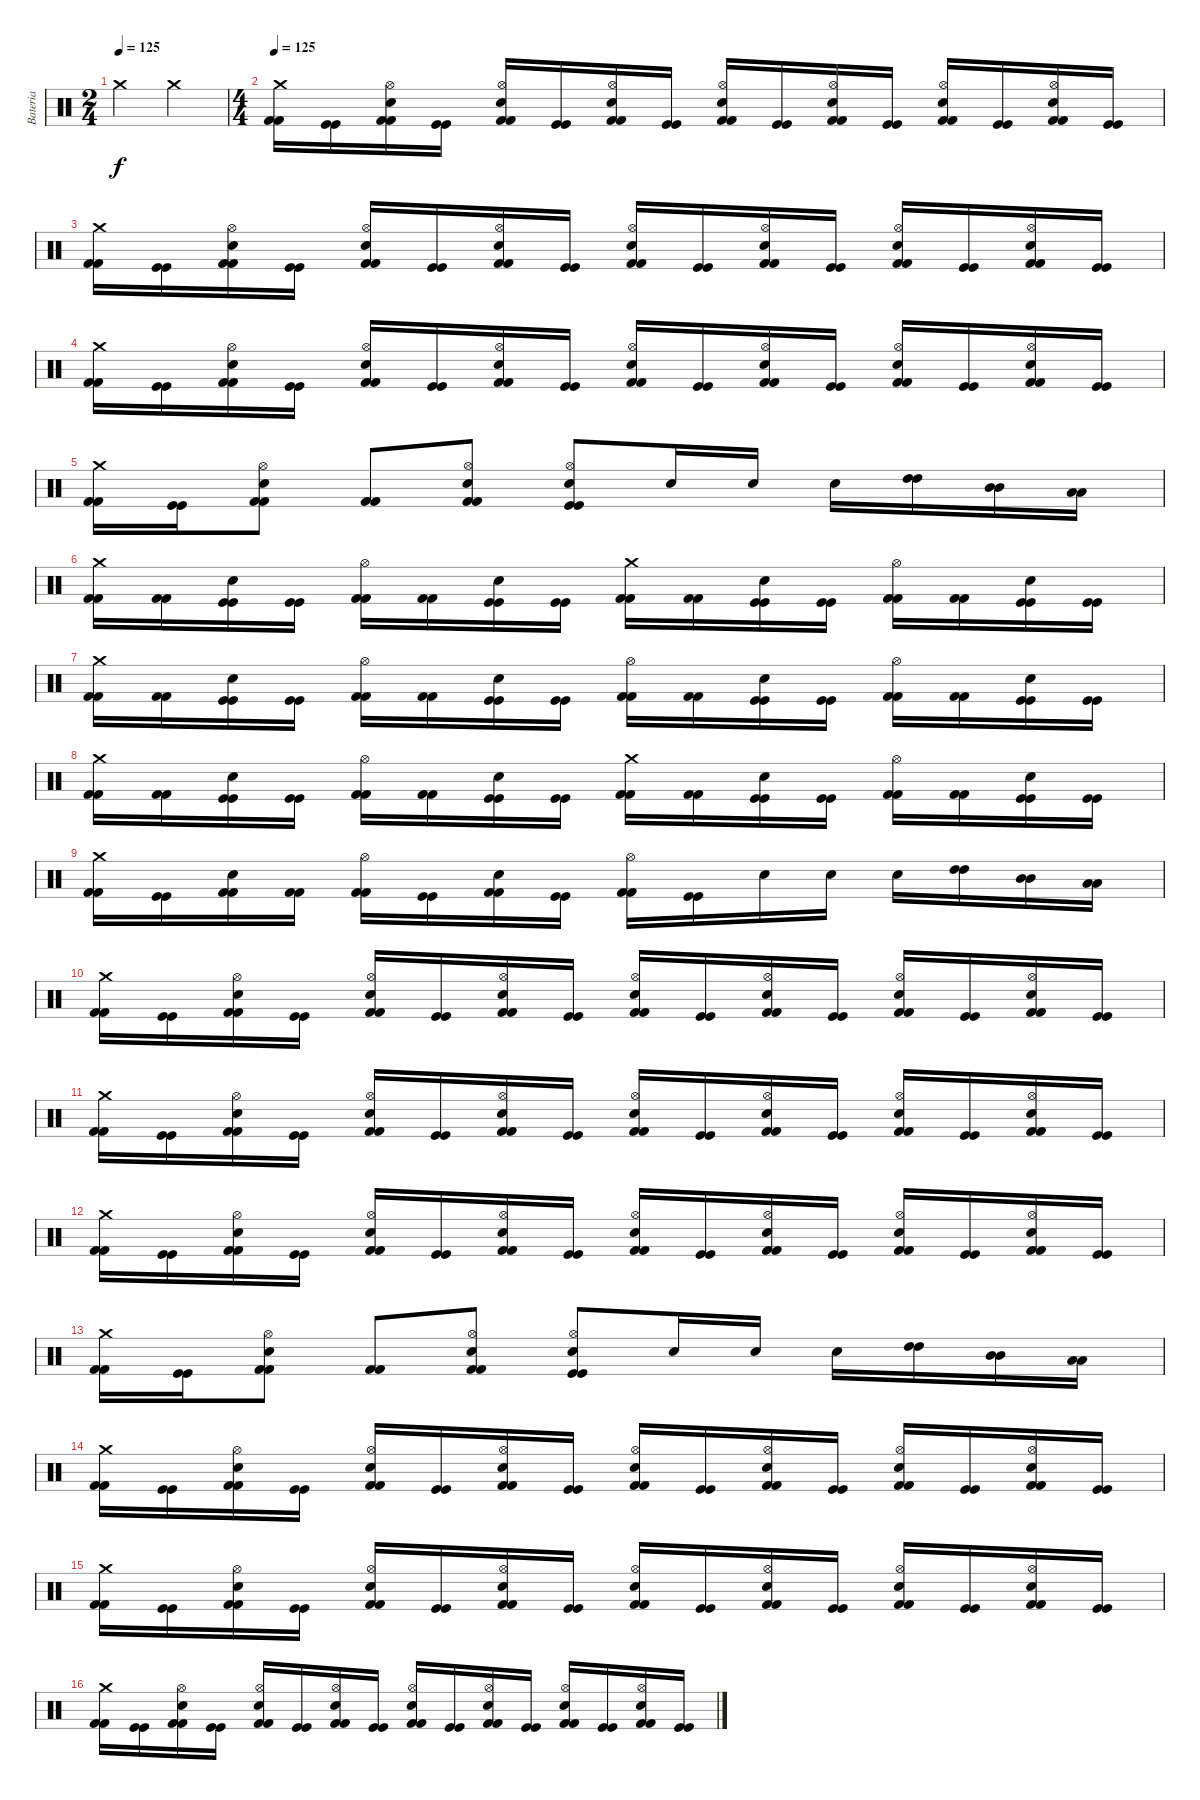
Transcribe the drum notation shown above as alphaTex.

\track ("Bateria" "Bateria") {instrument percussion}
\staff {score}
\articulation defaults
\ts (2 4)
\tempo 125
\clef neutral
\ks c "Crash medium (hit)".4{dy f} "Crash medium (hit)".4
|
\ts (4 4)
\tempo 125
("Crash medium (hit)" "Kick (hit) 2" "Kick (hit) 2").16 ("Kick (hit)" "Kick (hit)").16 ("Hi-Hat (open)" "Electric Snare (hit)" "Kick (hit) 2" "Kick (hit) 2").16 ("Kick (hit)" "Kick (hit)").16 ("Hi-Hat (open)" "Electric Snare (hit)" "Kick (hit) 2" "Kick (hit) 2").16 ("Kick (hit)" "Kick (hit)").16 ("Hi-Hat (open)" "Electric Snare (hit)" "Kick (hit) 2" "Kick (hit) 2").16 ("Kick (hit)" "Kick (hit)").16 ("Hi-Hat (open)" "Electric Snare (hit)" "Kick (hit) 2" "Kick (hit) 2").16 ("Kick (hit)" "Kick (hit)").16 ("Hi-Hat (open)" "Electric Snare (hit)" "Kick (hit) 2" "Kick (hit) 2").16 ("Kick (hit)" "Kick (hit)").16 ("Hi-Hat (open)" "Electric Snare (hit)" "Kick (hit) 2" "Kick (hit) 2").16 ("Kick (hit)" "Kick (hit)").16 ("Hi-Hat (open)" "Electric Snare (hit)" "Kick (hit) 2" "Kick (hit) 2").16 ("Kick (hit)" "Kick (hit)").16 |
("Crash medium (hit)" "Kick (hit) 2" "Kick (hit) 2").16 ("Kick (hit)" "Kick (hit)").16 ("Hi-Hat (open)" "Electric Snare (hit)" "Kick (hit) 2" "Kick (hit) 2").16 ("Kick (hit)" "Kick (hit)").16 ("Hi-Hat (open)" "Electric Snare (hit)" "Kick (hit) 2" "Kick (hit) 2").16 ("Kick (hit)" "Kick (hit)").16 ("Hi-Hat (open)" "Electric Snare (hit)" "Kick (hit) 2" "Kick (hit) 2").16 ("Kick (hit)" "Kick (hit)").16 ("Hi-Hat (open)" "Electric Snare (hit)" "Kick (hit) 2" "Kick (hit) 2").16 ("Kick (hit)" "Kick (hit)").16 ("Hi-Hat (open)" "Electric Snare (hit)" "Kick (hit) 2" "Kick (hit) 2").16 ("Kick (hit)" "Kick (hit)").16 ("Hi-Hat (open)" "Electric Snare (hit)" "Kick (hit) 2" "Kick (hit) 2").16 ("Kick (hit)" "Kick (hit)").16 ("Hi-Hat (open)" "Electric Snare (hit)" "Kick (hit) 2" "Kick (hit) 2").16 ("Kick (hit)" "Kick (hit)").16 |
("Crash medium (hit)" "Kick (hit) 2" "Kick (hit) 2").16 ("Kick (hit)" "Kick (hit)").16 ("Hi-Hat (open)" "Electric Snare (hit)" "Kick (hit) 2" "Kick (hit) 2").16 ("Kick (hit)" "Kick (hit)").16 ("Hi-Hat (open)" "Electric Snare (hit)" "Kick (hit) 2" "Kick (hit) 2").16 ("Kick (hit)" "Kick (hit)").16 ("Hi-Hat (open)" "Electric Snare (hit)" "Kick (hit) 2" "Kick (hit) 2").16 ("Kick (hit)" "Kick (hit)").16 ("Hi-Hat (open)" "Electric Snare (hit)" "Kick (hit) 2" "Kick (hit) 2").16 ("Kick (hit)" "Kick (hit)").16 ("Hi-Hat (open)" "Electric Snare (hit)" "Kick (hit) 2" "Kick (hit) 2").16 ("Kick (hit)" "Kick (hit)").16 ("Hi-Hat (open)" "Electric Snare (hit)" "Kick (hit) 2" "Kick (hit) 2").16 ("Kick (hit)" "Kick (hit)").16 ("Hi-Hat (open)" "Electric Snare (hit)" "Kick (hit) 2" "Kick (hit) 2").16 ("Kick (hit)" "Kick (hit)").16 |
("Crash medium (hit)" "Kick (hit) 2" "Kick (hit) 2").16 ("Kick (hit)" "Kick (hit)").16 ("Hi-Hat (open)" "Electric Snare (hit)" "Kick (hit) 2" "Kick (hit) 2").8 ("Kick (hit) 2" "Kick (hit) 2").8 ("Hi-Hat (open)" "Electric Snare (hit)" "Kick (hit) 2" "Kick (hit) 2").8 ("Hi-Hat (open)" "Electric Snare (hit)" "Kick (hit)" "Kick (hit)").8 "Electric Snare (hit)".16 "Electric Snare (hit)".16 "Electric Snare (hit)".16 ("High Tom (hit)" "High Tom (hit)").16 ("Mid Tom (hit)" "Mid Tom (hit)").16 ("Low Tom (hit)" "Low Tom (hit)").16 |
("Crash medium (hit)" "Kick (hit) 2" "Kick (hit) 2").16 ("Kick (hit) 2" "Kick (hit) 2").16 ("Electric Snare (hit)" "Kick (hit)" "Kick (hit)").16 ("Kick (hit)" "Kick (hit)").16 ("Hi-Hat (open)" "Kick (hit) 2" "Kick (hit) 2").16 ("Kick (hit) 2" "Kick (hit) 2").16 ("Electric Snare (hit)" "Kick (hit)" "Kick (hit)").16 ("Kick (hit)" "Kick (hit)").16 ("Crash medium (hit)" "Kick (hit) 2" "Kick (hit) 2").16 ("Kick (hit) 2" "Kick (hit) 2").16 ("Electric Snare (hit)" "Kick (hit)" "Kick (hit)").16 ("Kick (hit)" "Kick (hit)").16 ("Hi-Hat (open)" "Kick (hit) 2" "Kick (hit) 2").16 ("Kick (hit) 2" "Kick (hit) 2").16 ("Electric Snare (hit)" "Kick (hit)" "Kick (hit)").16 ("Kick (hit)" "Kick (hit)").16 |
("Crash medium (hit)" "Kick (hit) 2" "Kick (hit) 2").16 ("Kick (hit) 2" "Kick (hit) 2").16 ("Electric Snare (hit)" "Kick (hit)" "Kick (hit)").16 ("Kick (hit)" "Kick (hit)").16 ("Hi-Hat (open)" "Kick (hit) 2" "Kick (hit) 2").16 ("Kick (hit) 2" "Kick (hit) 2").16 ("Electric Snare (hit)" "Kick (hit)" "Kick (hit)").16 ("Kick (hit)" "Kick (hit)").16 ("Hi-Hat (open)" "Kick (hit) 2" "Kick (hit) 2").16 ("Kick (hit) 2" "Kick (hit) 2").16 ("Electric Snare (hit)" "Kick (hit)" "Kick (hit)").16 ("Kick (hit)" "Kick (hit)").16 ("Hi-Hat (open)" "Kick (hit) 2" "Kick (hit) 2").16 ("Kick (hit) 2" "Kick (hit) 2").16 ("Electric Snare (hit)" "Kick (hit)" "Kick (hit)").16 ("Kick (hit)" "Kick (hit)").16 |
("Crash medium (hit)" "Kick (hit) 2" "Kick (hit) 2").16 ("Kick (hit) 2" "Kick (hit) 2").16 ("Electric Snare (hit)" "Kick (hit)" "Kick (hit)").16 ("Kick (hit)" "Kick (hit)").16 ("Hi-Hat (open)" "Kick (hit) 2" "Kick (hit) 2").16 ("Kick (hit) 2" "Kick (hit) 2").16 ("Electric Snare (hit)" "Kick (hit)" "Kick (hit)").16 ("Kick (hit)" "Kick (hit)").16 ("Crash medium (hit)" "Kick (hit) 2" "Kick (hit) 2").16 ("Kick (hit) 2" "Kick (hit) 2").16 ("Electric Snare (hit)" "Kick (hit)" "Kick (hit)").16 ("Kick (hit)" "Kick (hit)").16 ("Hi-Hat (open)" "Kick (hit) 2" "Kick (hit) 2").16 ("Kick (hit) 2" "Kick (hit) 2").16 ("Electric Snare (hit)" "Kick (hit)" "Kick (hit)").16 ("Kick (hit)" "Kick (hit)").16 |
("Crash medium (hit)" "Kick (hit) 2" "Kick (hit) 2").16 ("Kick (hit)" "Kick (hit)").16 ("Electric Snare (hit)" "Kick (hit) 2" "Kick (hit) 2").16 ("Kick (hit) 2" "Kick (hit) 2").16 ("Hi-Hat (open)" "Kick (hit) 2" "Kick (hit) 2").16 ("Kick (hit)" "Kick (hit)").16 ("Electric Snare (hit)" "Kick (hit) 2" "Kick (hit) 2").16 ("Kick (hit)" "Kick (hit)").16 ("Hi-Hat (open)" "Kick (hit) 2" "Kick (hit) 2").16 ("Kick (hit)" "Kick (hit)").16 "Electric Snare (hit)".16 "Electric Snare (hit)".16 "Electric Snare (hit)".16 ("High Tom (hit)" "High Tom (hit)").16 ("Mid Tom (hit)" "Mid Tom (hit)").16 ("Low Tom (hit)" "Low Tom (hit)").16 |
("Crash medium (hit)" "Kick (hit) 2" "Kick (hit) 2").16 ("Kick (hit)" "Kick (hit)").16 ("Hi-Hat (open)" "Electric Snare (hit)" "Kick (hit) 2" "Kick (hit) 2").16 ("Kick (hit)" "Kick (hit)").16 ("Hi-Hat (open)" "Electric Snare (hit)" "Kick (hit) 2" "Kick (hit) 2").16 ("Kick (hit)" "Kick (hit)").16 ("Hi-Hat (open)" "Electric Snare (hit)" "Kick (hit) 2" "Kick (hit) 2").16 ("Kick (hit)" "Kick (hit)").16 ("Hi-Hat (open)" "Electric Snare (hit)" "Kick (hit) 2" "Kick (hit) 2").16 ("Kick (hit)" "Kick (hit)").16 ("Hi-Hat (open)" "Electric Snare (hit)" "Kick (hit) 2" "Kick (hit) 2").16 ("Kick (hit)" "Kick (hit)").16 ("Hi-Hat (open)" "Electric Snare (hit)" "Kick (hit) 2" "Kick (hit) 2").16 ("Kick (hit)" "Kick (hit)").16 ("Hi-Hat (open)" "Electric Snare (hit)" "Kick (hit) 2" "Kick (hit) 2").16 ("Kick (hit)" "Kick (hit)").16 |
("Crash medium (hit)" "Kick (hit) 2" "Kick (hit) 2").16 ("Kick (hit)" "Kick (hit)").16 ("Hi-Hat (open)" "Electric Snare (hit)" "Kick (hit) 2" "Kick (hit) 2").16 ("Kick (hit)" "Kick (hit)").16 ("Hi-Hat (open)" "Electric Snare (hit)" "Kick (hit) 2" "Kick (hit) 2").16 ("Kick (hit)" "Kick (hit)").16 ("Hi-Hat (open)" "Electric Snare (hit)" "Kick (hit) 2" "Kick (hit) 2").16 ("Kick (hit)" "Kick (hit)").16 ("Hi-Hat (open)" "Electric Snare (hit)" "Kick (hit) 2" "Kick (hit) 2").16 ("Kick (hit)" "Kick (hit)").16 ("Hi-Hat (open)" "Electric Snare (hit)" "Kick (hit) 2" "Kick (hit) 2").16 ("Kick (hit)" "Kick (hit)").16 ("Hi-Hat (open)" "Electric Snare (hit)" "Kick (hit) 2" "Kick (hit) 2").16 ("Kick (hit)" "Kick (hit)").16 ("Hi-Hat (open)" "Electric Snare (hit)" "Kick (hit) 2" "Kick (hit) 2").16 ("Kick (hit)" "Kick (hit)").16 |
("Crash medium (hit)" "Kick (hit) 2" "Kick (hit) 2").16 ("Kick (hit)" "Kick (hit)").16 ("Hi-Hat (open)" "Electric Snare (hit)" "Kick (hit) 2" "Kick (hit) 2").16 ("Kick (hit)" "Kick (hit)").16 ("Hi-Hat (open)" "Electric Snare (hit)" "Kick (hit) 2" "Kick (hit) 2").16 ("Kick (hit)" "Kick (hit)").16 ("Hi-Hat (open)" "Electric Snare (hit)" "Kick (hit) 2" "Kick (hit) 2").16 ("Kick (hit)" "Kick (hit)").16 ("Hi-Hat (open)" "Electric Snare (hit)" "Kick (hit) 2" "Kick (hit) 2").16 ("Kick (hit)" "Kick (hit)").16 ("Hi-Hat (open)" "Electric Snare (hit)" "Kick (hit) 2" "Kick (hit) 2").16 ("Kick (hit)" "Kick (hit)").16 ("Hi-Hat (open)" "Electric Snare (hit)" "Kick (hit) 2" "Kick (hit) 2").16 ("Kick (hit)" "Kick (hit)").16 ("Hi-Hat (open)" "Electric Snare (hit)" "Kick (hit) 2" "Kick (hit) 2").16 ("Kick (hit)" "Kick (hit)").16 |
("Crash medium (hit)" "Kick (hit) 2" "Kick (hit) 2").16 ("Kick (hit)" "Kick (hit)").16 ("Hi-Hat (open)" "Electric Snare (hit)" "Kick (hit) 2" "Kick (hit) 2").8 ("Kick (hit) 2" "Kick (hit) 2").8 ("Hi-Hat (open)" "Electric Snare (hit)" "Kick (hit) 2" "Kick (hit) 2").8 ("Hi-Hat (open)" "Electric Snare (hit)" "Kick (hit)" "Kick (hit)").8 "Electric Snare (hit)".16 "Electric Snare (hit)".16 "Electric Snare (hit)".16 ("High Tom (hit)" "High Tom (hit)").16 ("Mid Tom (hit)" "Mid Tom (hit)").16 ("Low Tom (hit)" "Low Tom (hit)").16 |
("Crash medium (hit)" "Kick (hit) 2" "Kick (hit) 2").16 ("Kick (hit)" "Kick (hit)").16 ("Hi-Hat (open)" "Electric Snare (hit)" "Kick (hit) 2" "Kick (hit) 2").16 ("Kick (hit)" "Kick (hit)").16 ("Hi-Hat (open)" "Electric Snare (hit)" "Kick (hit) 2" "Kick (hit) 2").16 ("Kick (hit)" "Kick (hit)").16 ("Hi-Hat (open)" "Electric Snare (hit)" "Kick (hit) 2" "Kick (hit) 2").16 ("Kick (hit)" "Kick (hit)").16 ("Hi-Hat (open)" "Electric Snare (hit)" "Kick (hit) 2" "Kick (hit) 2").16 ("Kick (hit)" "Kick (hit)").16 ("Hi-Hat (open)" "Electric Snare (hit)" "Kick (hit) 2" "Kick (hit) 2").16 ("Kick (hit)" "Kick (hit)").16 ("Hi-Hat (open)" "Electric Snare (hit)" "Kick (hit) 2" "Kick (hit) 2").16 ("Kick (hit)" "Kick (hit)").16 ("Hi-Hat (open)" "Electric Snare (hit)" "Kick (hit) 2" "Kick (hit) 2").16 ("Kick (hit)" "Kick (hit)").16 |
("Crash medium (hit)" "Kick (hit) 2" "Kick (hit) 2").16 ("Kick (hit)" "Kick (hit)").16 ("Hi-Hat (open)" "Electric Snare (hit)" "Kick (hit) 2" "Kick (hit) 2").16 ("Kick (hit)" "Kick (hit)").16 ("Hi-Hat (open)" "Electric Snare (hit)" "Kick (hit) 2" "Kick (hit) 2").16 ("Kick (hit)" "Kick (hit)").16 ("Hi-Hat (open)" "Electric Snare (hit)" "Kick (hit) 2" "Kick (hit) 2").16 ("Kick (hit)" "Kick (hit)").16 ("Hi-Hat (open)" "Electric Snare (hit)" "Kick (hit) 2" "Kick (hit) 2").16 ("Kick (hit)" "Kick (hit)").16 ("Hi-Hat (open)" "Electric Snare (hit)" "Kick (hit) 2" "Kick (hit) 2").16 ("Kick (hit)" "Kick (hit)").16 ("Hi-Hat (open)" "Electric Snare (hit)" "Kick (hit) 2" "Kick (hit) 2").16 ("Kick (hit)" "Kick (hit)").16 ("Hi-Hat (open)" "Electric Snare (hit)" "Kick (hit) 2" "Kick (hit) 2").16 ("Kick (hit)" "Kick (hit)").16 |
("Crash medium (hit)" "Kick (hit) 2" "Kick (hit) 2").16 ("Kick (hit)" "Kick (hit)").16 ("Hi-Hat (open)" "Electric Snare (hit)" "Kick (hit) 2" "Kick (hit) 2").16 ("Kick (hit)" "Kick (hit)").16 ("Hi-Hat (open)" "Electric Snare (hit)" "Kick (hit) 2" "Kick (hit) 2").16 ("Kick (hit)" "Kick (hit)").16 ("Hi-Hat (open)" "Electric Snare (hit)" "Kick (hit) 2" "Kick (hit) 2").16 ("Kick (hit)" "Kick (hit)").16 ("Hi-Hat (open)" "Electric Snare (hit)" "Kick (hit) 2" "Kick (hit) 2").16 ("Kick (hit)" "Kick (hit)").16 ("Hi-Hat (open)" "Electric Snare (hit)" "Kick (hit) 2" "Kick (hit) 2").16 ("Kick (hit)" "Kick (hit)").16 ("Hi-Hat (open)" "Electric Snare (hit)" "Kick (hit) 2" "Kick (hit) 2").16 ("Kick (hit)" "Kick (hit)").16 ("Hi-Hat (open)" "Electric Snare (hit)" "Kick (hit) 2" "Kick (hit) 2").16 ("Kick (hit)" "Kick (hit)").16
